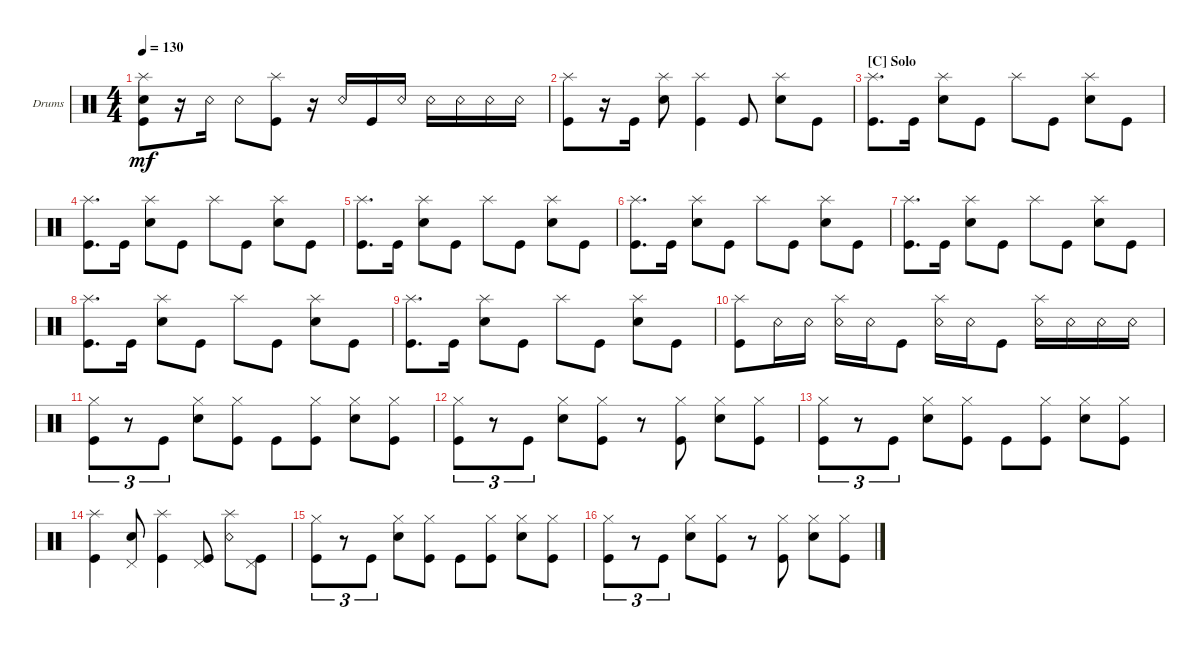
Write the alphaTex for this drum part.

\defaultSystemsLayout 4
\bracketExtendMode groupsimilarinstruments
\firstSystemTrackNameOrientation horizontal
\otherSystemsTrackNameOrientation horizontal
\track ("Drumkit" "Drums") {instrument percussion}
\staff {score}
\articulation defaults
\ts (4 4)
\tempo 130
\clef neutral
\ks c
("Kick (hit)" "Snare (hit) 2" "Splash (hit)").8{dy mf} r.16 "Snare (rim shot)".16 "Snare (rim shot)".8 ("Kick (hit)" "Splash (hit)").8 r.16 "Snare (rim shot)".16 "Kick (hit)".16 "Snare (rim shot)".16 "Snare (rim shot)".16 "Snare (rim shot)".16 "Snare (rim shot)".16 "Snare (rim shot)".16 |
("Kick (hit)" "Splash (hit)").8 r.16 "Kick (hit)".16 ("Snare (hit) 2" "Splash (hit)").8 ("Kick (hit)" "Splash (hit)").4 "Kick (hit)".8 ("Snare (hit) 2" "Splash (hit)").8 "Kick (hit)".8 |
\section ("C" "Solo")
("Kick (hit)" "Splash (hit)").8{d} "Kick (hit)".16 ("Snare (hit) 2" "Splash (hit)").8 "Kick (hit)".8 "Splash (hit)".8 "Kick (hit)".8 ("Snare (hit) 2" "Splash (hit)").8 "Kick (hit)".8 |
("Kick (hit)" "Splash (hit)").8{d} "Kick (hit)".16 ("Snare (hit) 2" "Splash (hit)").8 "Kick (hit)".8 "Splash (hit)".8 "Kick (hit)".8 ("Snare (hit) 2" "Splash (hit)").8 "Kick (hit)".8 |
("Kick (hit)" "Splash (hit)").8{d} "Kick (hit)".16 ("Snare (hit) 2" "Splash (hit)").8 "Kick (hit)".8 "Splash (hit)".8 "Kick (hit)".8 ("Snare (hit) 2" "Splash (hit)").8 "Kick (hit)".8 |
("Kick (hit)" "Splash (hit)").8{d} "Kick (hit)".16 ("Snare (hit) 2" "Splash (hit)").8 "Kick (hit)".8 "Splash (hit)".8 "Kick (hit)".8 ("Snare (hit) 2" "Splash (hit)").8 "Kick (hit)".8 |
("Kick (hit)" "Splash (hit)").8{d} "Kick (hit)".16 ("Snare (hit) 2" "Splash (hit)").8 "Kick (hit)".8 "Splash (hit)".8 "Kick (hit)".8 ("Snare (hit) 2" "Splash (hit)").8 "Kick (hit)".8 |
("Kick (hit)" "Splash (hit)").8{d} "Kick (hit)".16 ("Snare (hit) 2" "Splash (hit)").8 "Kick (hit)".8 "Splash (hit)".8 "Kick (hit)".8 ("Snare (hit) 2" "Splash (hit)").8 "Kick (hit)".8 |
("Kick (hit)" "Splash (hit)").8{d} "Kick (hit)".16 ("Snare (hit) 2" "Splash (hit)").8 "Kick (hit)".8 "Splash (hit)".8 "Kick (hit)".8 ("Snare (hit) 2" "Splash (hit)").8 "Kick (hit)".8 |
("Kick (hit)" "Splash (hit)").8 "Snare (rim shot)".16 "Snare (rim shot)".16 ("Snare (rim shot)" "Splash (hit)").16 "Snare (rim shot)".16 "Kick (hit)".8 ("Snare (rim shot)" "Splash (hit)").16 "Snare (rim shot)".16 "Kick (hit)".8 ("Snare (rim shot)" "Splash (hit)").16 "Snare (rim shot)".16 "Snare (rim shot)".16 "Snare (rim shot)".16 |
("Kick (hit)" "Hi-Hat (closed)").8{tu (3 2)} r.8{tu (3 2)} "Kick (hit)".8{tu (3 2)} ("Snare (hit) 2" "Hi-Hat (closed)").8 ("Kick (hit)" "Hi-Hat (closed)").8 "Kick (hit)".8 ("Kick (hit)" "Hi-Hat (closed)").8 ("Snare (hit) 2" "Hi-Hat (closed)").8 ("Kick (hit)" "Hi-Hat (closed)").8 |
("Kick (hit)" "Hi-Hat (closed)").8{tu (3 2)} r.8{tu (3 2)} "Kick (hit)".8{tu (3 2)} ("Snare (hit) 2" "Hi-Hat (closed)").8 ("Kick (hit)" "Hi-Hat (closed)").8 r.8 ("Kick (hit)" "Hi-Hat (closed)").8 ("Snare (hit) 2" "Hi-Hat (closed)").8 ("Kick (hit)" "Hi-Hat (closed)").8 |
("Kick (hit)" "Hi-Hat (closed)").8{tu (3 2)} r.8{tu (3 2)} "Kick (hit)".8{tu (3 2)} ("Snare (hit) 2" "Hi-Hat (closed)").8 ("Kick (hit)" "Hi-Hat (closed)").8 "Kick (hit)".8 ("Kick (hit)" "Hi-Hat (closed)").8 ("Snare (hit) 2" "Hi-Hat (closed)").8 ("Kick (hit)" "Hi-Hat (closed)").8 |
("Kick (hit)" "Splash (hit)").4 ("Snare (hit) 2" "Pedal Hi-Hat (hit)").8 ("Kick (hit)" "Splash (hit)").4 ("Kick (hit)" "Pedal Hi-Hat (hit)").8 ("Snare (rim shot)" "Splash (hit)").8 ("Kick (hit)" "Pedal Hi-Hat (hit)").8 |
("Kick (hit)" "Hi-Hat (closed)").8{tu (3 2)} r.8{tu (3 2)} "Kick (hit)".8{tu (3 2)} ("Snare (hit) 2" "Hi-Hat (closed)").8 ("Kick (hit)" "Hi-Hat (closed)").8 "Kick (hit)".8 ("Kick (hit)" "Hi-Hat (closed)").8 ("Snare (hit) 2" "Hi-Hat (closed)").8 ("Kick (hit)" "Hi-Hat (closed)").8 |
("Kick (hit)" "Hi-Hat (closed)").8{tu (3 2)} r.8{tu (3 2)} "Kick (hit)".8{tu (3 2)} ("Snare (hit) 2" "Hi-Hat (closed)").8 ("Kick (hit)" "Hi-Hat (closed)").8 r.8 ("Kick (hit)" "Hi-Hat (closed)").8 ("Snare (hit) 2" "Hi-Hat (closed)").8 ("Kick (hit)" "Hi-Hat (closed)").8
